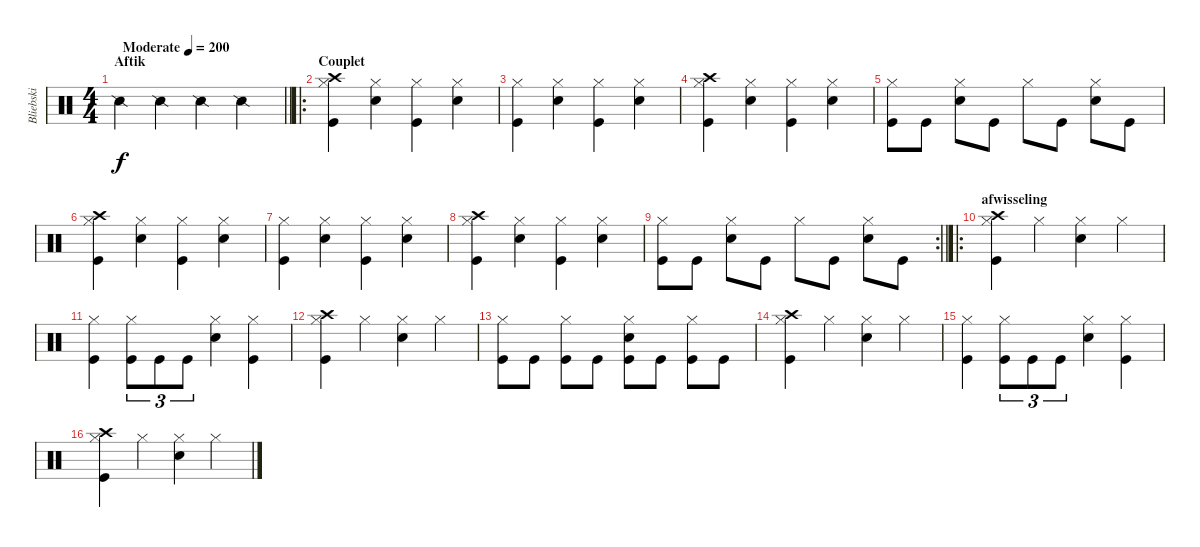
\track ("Bliebski" "Bliebski") {instrument percussion}
\staff {score}
\articulation defaults
\ts (4 4)
\section ("" "Aftik")
\tempo (200 "Moderate")
\clef neutral
\barLineRight lightlight
\ks c "Snare (side stick) 2".4{dy f} "Snare (side stick) 2".4 "Snare (side stick) 2".4 "Snare (side stick) 2".4
|
\ro
\section ("" "Couplet")
("Crash high (hit)" "Hi-Hat (closed)" "Kick (hit)").4 ("Hi-Hat (closed)" "Snare (hit) 2").4 ("Hi-Hat (closed)" "Kick (hit)").4 ("Hi-Hat (closed)" "Snare (hit) 2").4 |
("Hi-Hat (closed)" "Kick (hit)").4 ("Hi-Hat (closed)" "Snare (hit) 2").4 ("Hi-Hat (closed)" "Kick (hit)").4 ("Hi-Hat (closed)" "Snare (hit) 2").4 |
("Crash high (hit)" "Hi-Hat (closed)" "Kick (hit)").4 ("Hi-Hat (closed)" "Snare (hit) 2").4 ("Hi-Hat (closed)" "Kick (hit)").4 ("Hi-Hat (closed)" "Snare (hit) 2").4 |
("Hi-Hat (closed)" "Kick (hit)").8 "Kick (hit)".8 ("Hi-Hat (closed)" "Snare (hit) 2").8 "Kick (hit)".8 "Hi-Hat (closed)".8 "Kick (hit)".8 ("Hi-Hat (closed)" "Snare (hit) 2").8 "Kick (hit)".8 |
("Crash high (hit)" "Hi-Hat (closed)" "Kick (hit)").4 ("Hi-Hat (closed)" "Snare (hit) 2").4 ("Hi-Hat (closed)" "Kick (hit)").4 ("Hi-Hat (closed)" "Snare (hit) 2").4 |
("Hi-Hat (closed)" "Kick (hit)").4 ("Hi-Hat (closed)" "Snare (hit) 2").4 ("Hi-Hat (closed)" "Kick (hit)").4 ("Hi-Hat (closed)" "Snare (hit) 2").4 |
("Crash high (hit)" "Hi-Hat (closed)" "Kick (hit)").4 ("Hi-Hat (closed)" "Snare (hit) 2").4 ("Hi-Hat (closed)" "Kick (hit)").4 ("Hi-Hat (closed)" "Snare (hit) 2").4 |
\rc 2
\barLineRight lightlight
("Hi-Hat (closed)" "Kick (hit)").8 "Kick (hit)".8 ("Hi-Hat (closed)" "Snare (hit) 2").8 "Kick (hit)".8 "Hi-Hat (closed)".8 "Kick (hit)".8 ("Hi-Hat (closed)" "Snare (hit) 2").8 "Kick (hit)".8 |
\ro
\section ("" "afwisseling")
("Crash high (hit)" "Hi-Hat (closed)" "Kick (hit)").4 "Hi-Hat (closed)".4 ("Hi-Hat (closed)" "Snare (hit) 2").4 "Hi-Hat (closed)".4 |
("Hi-Hat (closed)" "Kick (hit)").4 ("Hi-Hat (closed)" "Kick (hit)").8{tu (3 2)} "Kick (hit)".8{tu (3 2)} "Kick (hit)".8{tu (3 2)} ("Hi-Hat (closed)" "Snare (hit) 2").4 ("Hi-Hat (closed)" "Kick (hit)").4 |
("Crash high (hit)" "Hi-Hat (closed)" "Kick (hit)").4 "Hi-Hat (closed)".4 ("Hi-Hat (closed)" "Snare (hit) 2").4 "Hi-Hat (closed)".4 |
("Hi-Hat (closed)" "Kick (hit)").8 "Kick (hit)".8 ("Hi-Hat (closed)" "Kick (hit)").8 "Kick (hit)".8 ("Hi-Hat (closed)" "Kick (hit)" "Snare (hit) 2").8 "Kick (hit)".8 ("Hi-Hat (closed)" "Kick (hit)").8 "Kick (hit)".8 |
("Crash high (hit)" "Hi-Hat (closed)" "Kick (hit)").4 "Hi-Hat (closed)".4 ("Hi-Hat (closed)" "Snare (hit) 2").4 "Hi-Hat (closed)".4 |
("Hi-Hat (closed)" "Kick (hit)").4 ("Hi-Hat (closed)" "Kick (hit)").8{tu (3 2)} "Kick (hit)".8{tu (3 2)} "Kick (hit)".8{tu (3 2)} ("Hi-Hat (closed)" "Snare (hit) 2").4 ("Hi-Hat (closed)" "Kick (hit)").4 |
("Crash high (hit)" "Hi-Hat (closed)" "Kick (hit)").4 "Hi-Hat (closed)".4 ("Hi-Hat (closed)" "Snare (hit) 2").4 "Hi-Hat (closed)".4
